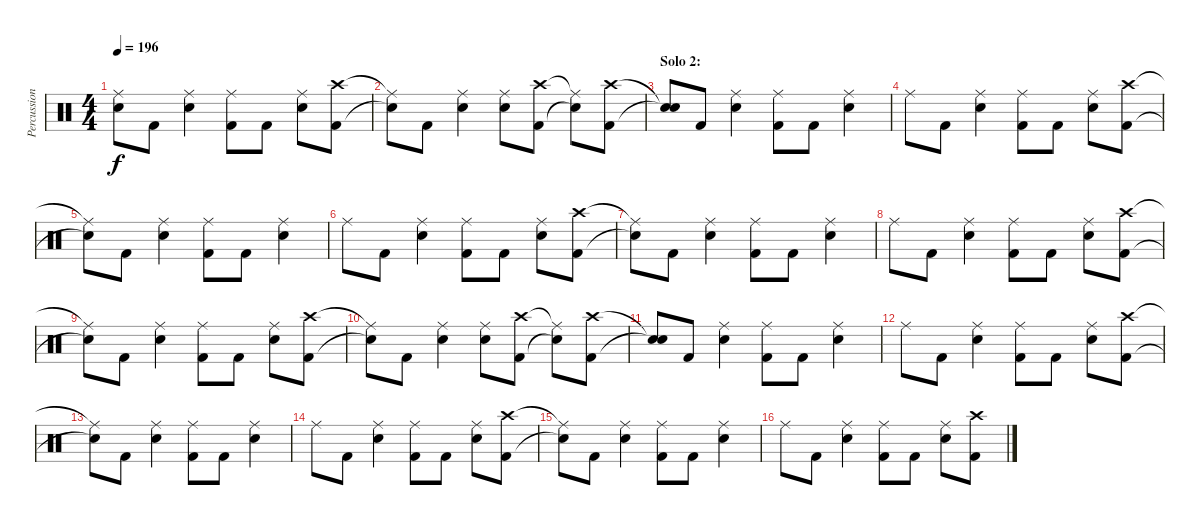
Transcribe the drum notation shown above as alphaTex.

\track ("Percussion" "Percussion") {instrument percussion}
\staff {score}
\articulation defaults
\ts (4 4)
\tempo 196
\clef neutral
\ks c
("Ride (middle)"{t} "Snare (hit)"{t}).8{dy f} "Kick (hit) 2".8 ("Ride (middle)" "Snare (hit) 2").4 ("Ride (middle)" "Kick (hit) 2").8 "Kick (hit) 2".8 ("Ride (middle)" "Snare (hit) 2").8 ("Crash high (hit)" "Kick (hit) 2").8 |
("Ride (middle)"{t} "Snare (hit)"{t}).8 "Kick (hit) 2".8 ("Ride (middle)" "Snare (hit) 2").4 ("Ride (middle)" "Snare (hit) 2").8 ("Crash high (hit)" "Kick (hit) 2").8 ("Ride (middle)"{t} "Snare (hit)"{t}).8 ("Crash high (hit)" "Kick (hit) 2").8 |
\section ("" "Solo 2:")
("Snare (hit)"{t} "Snare (hit)"{t}).8 "Kick (hit) 2".8 ("Ride (middle)" "Snare (hit) 2").4 ("Ride (middle)" "Kick (hit) 2").8 "Kick (hit) 2".8 ("Ride (middle)" "Snare (hit) 2").4 |
"Ride (middle)".8 "Kick (hit) 2".8 ("Ride (middle)" "Snare (hit) 2").4 ("Ride (middle)" "Kick (hit) 2").8 "Kick (hit) 2".8 ("Ride (middle)" "Snare (hit) 2").8 ("Crash high (hit)" "Kick (hit) 2").8 |
("Ride (middle)"{t} "Snare (hit)"{t}).8 "Kick (hit) 2".8 ("Ride (middle)" "Snare (hit) 2").4 ("Ride (middle)" "Kick (hit) 2").8 "Kick (hit) 2".8 ("Ride (middle)" "Snare (hit) 2").4 |
"Ride (middle)".8 "Kick (hit) 2".8 ("Ride (middle)" "Snare (hit) 2").4 ("Ride (middle)" "Kick (hit) 2").8 "Kick (hit) 2".8 ("Ride (middle)" "Snare (hit) 2").8 ("Crash high (hit)" "Kick (hit) 2").8 |
("Ride (middle)"{t} "Snare (hit)"{t}).8 "Kick (hit) 2".8 ("Ride (middle)" "Snare (hit) 2").4 ("Ride (middle)" "Kick (hit) 2").8 "Kick (hit) 2".8 ("Ride (middle)" "Snare (hit) 2").4 |
"Ride (middle)".8 "Kick (hit) 2".8 ("Ride (middle)" "Snare (hit) 2").4 ("Ride (middle)" "Kick (hit) 2").8 "Kick (hit) 2".8 ("Ride (middle)" "Snare (hit) 2").8 ("Crash high (hit)" "Kick (hit) 2").8 |
("Ride (middle)"{t} "Snare (hit)"{t}).8 "Kick (hit) 2".8 ("Ride (middle)" "Snare (hit) 2").4 ("Ride (middle)" "Kick (hit) 2").8 "Kick (hit) 2".8 ("Ride (middle)" "Snare (hit) 2").8 ("Crash high (hit)" "Kick (hit) 2").8 |
("Ride (middle)"{t} "Snare (hit)"{t}).8 "Kick (hit) 2".8 ("Ride (middle)" "Snare (hit) 2").4 ("Ride (middle)" "Snare (hit) 2").8 ("Crash high (hit)" "Kick (hit) 2").8 ("Ride (middle)"{t} "Snare (hit)"{t}).8 ("Crash high (hit)" "Kick (hit) 2").8 |
("Snare (hit)"{t} "Snare (hit)"{t}).8 "Kick (hit) 2".8 ("Ride (middle)" "Snare (hit) 2").4 ("Ride (middle)" "Kick (hit) 2").8 "Kick (hit) 2".8 ("Ride (middle)" "Snare (hit) 2").4 |
"Ride (middle)".8 "Kick (hit) 2".8 ("Ride (middle)" "Snare (hit) 2").4 ("Ride (middle)" "Kick (hit) 2").8 "Kick (hit) 2".8 ("Ride (middle)" "Snare (hit) 2").8 ("Crash high (hit)" "Kick (hit) 2").8 |
("Ride (middle)"{t} "Snare (hit)"{t}).8 "Kick (hit) 2".8 ("Ride (middle)" "Snare (hit) 2").4 ("Ride (middle)" "Kick (hit) 2").8 "Kick (hit) 2".8 ("Ride (middle)" "Snare (hit) 2").4 |
"Ride (middle)".8 "Kick (hit) 2".8 ("Ride (middle)" "Snare (hit) 2").4 ("Ride (middle)" "Kick (hit) 2").8 "Kick (hit) 2".8 ("Ride (middle)" "Snare (hit) 2").8 ("Crash high (hit)" "Kick (hit) 2").8 |
("Ride (middle)"{t} "Snare (hit)"{t}).8 "Kick (hit) 2".8 ("Ride (middle)" "Snare (hit) 2").4 ("Ride (middle)" "Kick (hit) 2").8 "Kick (hit) 2".8 ("Ride (middle)" "Snare (hit) 2").4 |
"Ride (middle)".8 "Kick (hit) 2".8 ("Ride (middle)" "Snare (hit) 2").4 ("Ride (middle)" "Kick (hit) 2").8 "Kick (hit) 2".8 ("Ride (middle)" "Snare (hit) 2").8 ("Crash high (hit)" "Kick (hit) 2").8
